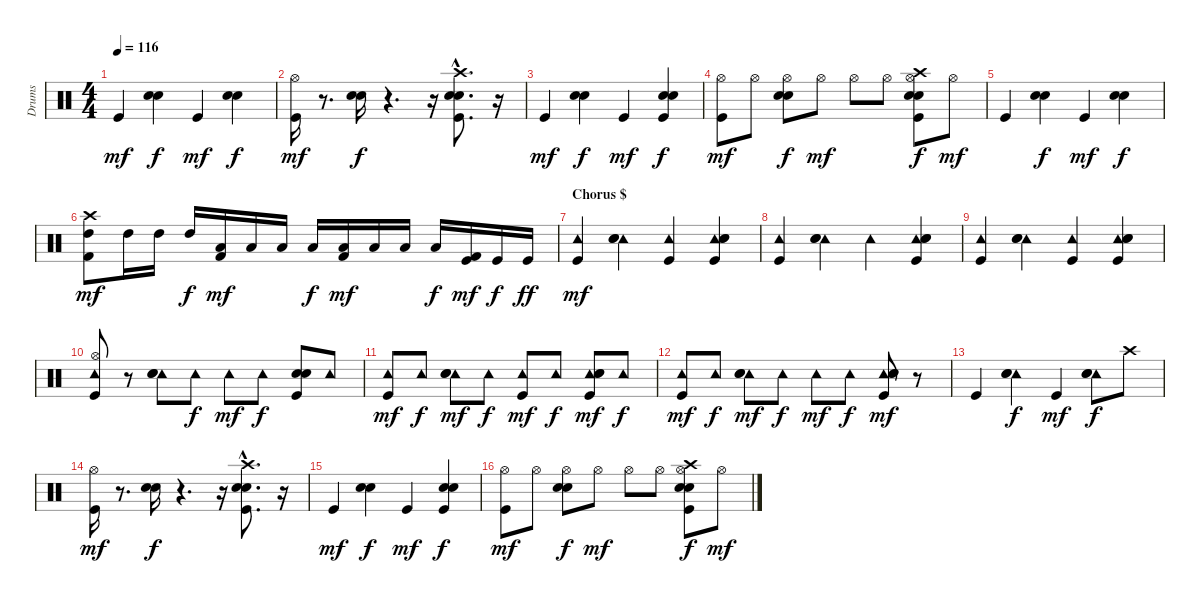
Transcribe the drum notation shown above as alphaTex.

\track ("Drums" "Drums") {instrument percussion}
\staff {score}
\articulation defaults
\ts (4 4)
\tempo 116
\clef neutral
\ks c "Kick (hit)".4{dy mf}
("Electric Snare (hit)" "Snare (hit) 2").4{dy f} "Kick (hit)".4{dy mf} ("Electric Snare (hit)" "Snare (hit) 2").4{dy f} |
("Hi-Hat (open)" "Kick (hit)").16{dy mf} r.8{d} ("Electric Snare (hit)" "Snare (hit) 2").16{dy f} r.4{d} r.16 ("Crash high (hit)"{hac} "Electric Snare (hit)" "Snare (hit) 2" "Kick (hit)").8{d} r.16 |
"Kick (hit)".4{dy mf} ("Electric Snare (hit)" "Snare (hit) 2").4{dy f} "Kick (hit)".4{dy mf} ("Electric Snare (hit)" "Snare (hit) 2" "Kick (hit)").4{dy f} |
("Hi-Hat (open)" "Kick (hit)").8{dy mf} "Hi-Hat (open)".8 ("Hi-Hat (open)" "Electric Snare (hit)" "Snare (hit) 2").8{dy f} "Hi-Hat (open)".8{dy mf} "Hi-Hat (open)".8 "Hi-Hat (open)".8 ("Hi-Hat (open)" "Crash high (hit)" "Electric Snare (hit)" "Snare (hit) 2" "Kick (hit)").8{dy f} "Hi-Hat (open)".8{dy mf} |
"Kick (hit)".4 ("Electric Snare (hit)" "Snare (hit) 2").4{dy f} "Kick (hit)".4{dy mf} ("Electric Snare (hit)" "Snare (hit) 2").4{dy f} |
("High Tom (hit)" "Kick (hit) 2" "Crash high (hit)").8{dy mf} "High Tom (hit)".16 "High Tom (hit)".16 "High Tom (hit)".16{dy f} ("Low Tom (hit)" "Kick (hit) 2").16{dy mf} "Low Tom (hit)".16 "Low Tom (hit)".16 "Low Tom (hit)".16{dy f} ("Low Floor Tom (hit)" "Kick (hit) 2").16{dy mf} "Low Floor Tom (hit)".16 "Low Floor Tom (hit)".16 "Low Floor Tom (hit)".16{dy f} ("Kick (hit)" "Kick (hit) 2").16{dy mf} "Kick (hit)".16{dy f} "Kick (hit)".16{dy ff} |
\section ("" "Chorus $")
("Tambourine (hit)" "Kick (hit)").4{dy mf} ("Tambourine (hit)" "Electric Snare (hit)" "Snare (hit) 2").4 ("Tambourine (hit)" "Kick (hit)").4 ("Tambourine (hit)" "Electric Snare (hit)" "Snare (hit) 2" "Kick (hit)").4 |
("Tambourine (hit)" "Kick (hit)").4 ("Tambourine (hit)" "Electric Snare (hit)" "Snare (hit) 2").4 "Tambourine (hit)".4 ("Tambourine (hit)" "Electric Snare (hit)" "Snare (hit) 2" "Kick (hit)").4 |
("Tambourine (hit)" "Kick (hit)").4 ("Tambourine (hit)" "Electric Snare (hit)" "Snare (hit) 2").4 ("Tambourine (hit)" "Kick (hit)").4 ("Tambourine (hit)" "Electric Snare (hit)" "Snare (hit) 2" "Kick (hit)").4 |
("Tambourine (hit)" "Hi-Hat (open)" "Kick (hit)").8 r.8 ("Tambourine (hit)" "Electric Snare (hit)" "Snare (hit) 2").8 "Tambourine (hit)".8{dy f} "Tambourine (hit)".8{dy mf} "Tambourine (hit)".8{dy f} ("Electric Snare (hit)" "Snare (hit) 2" "Kick (hit)").8 "Tambourine (hit)".8 |
("Tambourine (hit)" "Kick (hit)").8{dy mf} "Tambourine (hit)".8{dy f} ("Tambourine (hit)" "Electric Snare (hit)" "Snare (hit) 2").8{dy mf} "Tambourine (hit)".8{dy f} ("Tambourine (hit)" "Kick (hit)").8{dy mf} "Tambourine (hit)".8{dy f} ("Tambourine (hit)" "Electric Snare (hit)" "Snare (hit) 2" "Kick (hit)").8{dy mf} "Tambourine (hit)".8{dy f} |
("Tambourine (hit)" "Kick (hit)").8{dy mf} "Tambourine (hit)".8{dy f} ("Tambourine (hit)" "Electric Snare (hit)" "Snare (hit) 2").8{dy mf} "Tambourine (hit)".8{dy f} "Tambourine (hit)".8{dy mf} "Tambourine (hit)".8{dy f} ("Tambourine (hit)" "Electric Snare (hit)" "Snare (hit) 2" "Kick (hit)").8{dy mf} r.8 |
"Kick (hit)".4 ("Tambourine (hit)" "Electric Snare (hit)" "Snare (hit) 2").4{dy f} "Kick (hit)".4{dy mf} ("Tambourine (hit)" "Electric Snare (hit)" "Snare (hit) 2").8{dy f} "Crash high (hit)".8 |
("Hi-Hat (open)" "Kick (hit)").16{dy mf} r.8{d} ("Electric Snare (hit)" "Snare (hit) 2").16{dy f} r.4{d} r.16 ("Crash high (hit)"{hac} "Electric Snare (hit)" "Snare (hit) 2" "Kick (hit)").8{d} r.16 |
"Kick (hit)".4{dy mf} ("Electric Snare (hit)" "Snare (hit) 2").4{dy f} "Kick (hit)".4{dy mf} ("Electric Snare (hit)" "Snare (hit) 2" "Kick (hit)").4{dy f} |
("Hi-Hat (open)" "Kick (hit)").8{dy mf} "Hi-Hat (open)".8 ("Hi-Hat (open)" "Electric Snare (hit)" "Snare (hit) 2").8{dy f} "Hi-Hat (open)".8{dy mf} "Hi-Hat (open)".8 "Hi-Hat (open)".8 ("Hi-Hat (open)" "Crash high (hit)" "Electric Snare (hit)" "Snare (hit) 2" "Kick (hit)").8{dy f} "Hi-Hat (open)".8{dy mf}
